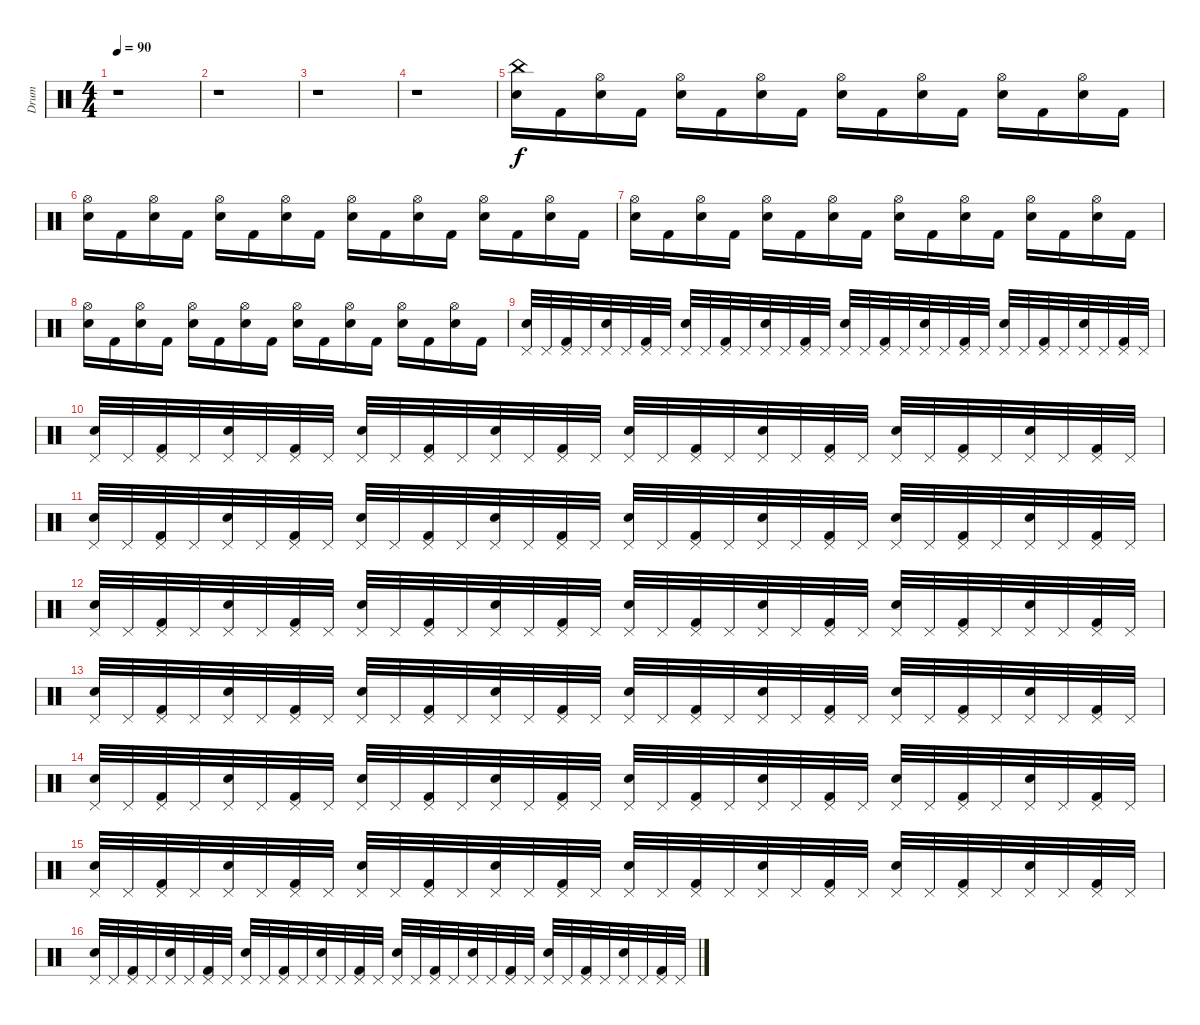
\track ("Drum" "Drum") {instrument percussion}
\staff {score}
\articulation defaults
\ts (4 4)
\tempo 90
\clef neutral
\ks c
r.1{dy f} |
r.1 |
r.1 |
r.1 |
("China (hit)" "Electric Snare (hit)").16 "Kick (hit) 2".16 ("Hi-Hat (open)" "Electric Snare (hit)").16 "Kick (hit) 2".16 ("Hi-Hat (open)" "Electric Snare (hit)").16 "Kick (hit) 2".16 ("Hi-Hat (open)" "Electric Snare (hit)").16 "Kick (hit) 2".16 ("Hi-Hat (open)" "Electric Snare (hit)").16 "Kick (hit) 2".16 ("Hi-Hat (open)" "Electric Snare (hit)").16 "Kick (hit) 2".16 ("Hi-Hat (open)" "Electric Snare (hit)").16 "Kick (hit) 2".16 ("Hi-Hat (open)" "Electric Snare (hit)").16 "Kick (hit) 2".16 |
("Hi-Hat (open)" "Electric Snare (hit)").16 "Kick (hit) 2".16 ("Hi-Hat (open)" "Electric Snare (hit)").16 "Kick (hit) 2".16 ("Hi-Hat (open)" "Electric Snare (hit)").16 "Kick (hit) 2".16 ("Hi-Hat (open)" "Electric Snare (hit)").16 "Kick (hit) 2".16 ("Hi-Hat (open)" "Electric Snare (hit)").16 "Kick (hit) 2".16 ("Hi-Hat (open)" "Electric Snare (hit)").16 "Kick (hit) 2".16 ("Hi-Hat (open)" "Electric Snare (hit)").16 "Kick (hit) 2".16 ("Hi-Hat (open)" "Electric Snare (hit)").16 "Kick (hit) 2".16 |
("Hi-Hat (open)" "Electric Snare (hit)").16 "Kick (hit) 2".16 ("Hi-Hat (open)" "Electric Snare (hit)").16 "Kick (hit) 2".16 ("Hi-Hat (open)" "Electric Snare (hit)").16 "Kick (hit) 2".16 ("Hi-Hat (open)" "Electric Snare (hit)").16 "Kick (hit) 2".16 ("Hi-Hat (open)" "Electric Snare (hit)").16 "Kick (hit) 2".16 ("Hi-Hat (open)" "Electric Snare (hit)").16 "Kick (hit) 2".16 ("Hi-Hat (open)" "Electric Snare (hit)").16 "Kick (hit) 2".16 ("Hi-Hat (open)" "Electric Snare (hit)").16 "Kick (hit) 2".16 |
("Hi-Hat (open)" "Electric Snare (hit)").16 "Kick (hit) 2".16 ("Hi-Hat (open)" "Electric Snare (hit)").16 "Kick (hit) 2".16 ("Hi-Hat (open)" "Electric Snare (hit)").16 "Kick (hit) 2".16 ("Hi-Hat (open)" "Electric Snare (hit)").16 "Kick (hit) 2".16 ("Hi-Hat (open)" "Electric Snare (hit)").16 "Kick (hit) 2".16 ("Hi-Hat (open)" "Electric Snare (hit)").16 "Kick (hit) 2".16 ("Hi-Hat (open)" "Electric Snare (hit)").16 "Kick (hit) 2".16 ("Hi-Hat (open)" "Electric Snare (hit)").16 "Kick (hit) 2".16 |
("Pedal Hi-Hat (hit)" "Electric Snare (hit)").32 "Pedal Hi-Hat (hit)".32 ("Pedal Hi-Hat (hit)" "Kick (hit) 2").32 "Pedal Hi-Hat (hit)".32 ("Pedal Hi-Hat (hit)" "Electric Snare (hit)").32 "Pedal Hi-Hat (hit)".32 ("Pedal Hi-Hat (hit)" "Kick (hit) 2").32 "Pedal Hi-Hat (hit)".32 ("Pedal Hi-Hat (hit)" "Electric Snare (hit)").32 "Pedal Hi-Hat (hit)".32 ("Pedal Hi-Hat (hit)" "Kick (hit) 2").32 "Pedal Hi-Hat (hit)".32 ("Pedal Hi-Hat (hit)" "Electric Snare (hit)").32 "Pedal Hi-Hat (hit)".32 ("Pedal Hi-Hat (hit)" "Kick (hit) 2").32 "Pedal Hi-Hat (hit)".32 ("Pedal Hi-Hat (hit)" "Electric Snare (hit)").32 "Pedal Hi-Hat (hit)".32 ("Pedal Hi-Hat (hit)" "Kick (hit) 2").32 "Pedal Hi-Hat (hit)".32 ("Pedal Hi-Hat (hit)" "Electric Snare (hit)").32 "Pedal Hi-Hat (hit)".32 ("Pedal Hi-Hat (hit)" "Kick (hit) 2").32 "Pedal Hi-Hat (hit)".32 ("Pedal Hi-Hat (hit)" "Electric Snare (hit)").32 "Pedal Hi-Hat (hit)".32 ("Pedal Hi-Hat (hit)" "Kick (hit) 2").32 "Pedal Hi-Hat (hit)".32 ("Pedal Hi-Hat (hit)" "Electric Snare (hit)").32 "Pedal Hi-Hat (hit)".32 ("Pedal Hi-Hat (hit)" "Kick (hit) 2").32 "Pedal Hi-Hat (hit)".32 |
("Pedal Hi-Hat (hit)" "Electric Snare (hit)").32 "Pedal Hi-Hat (hit)".32 ("Pedal Hi-Hat (hit)" "Kick (hit) 2").32 "Pedal Hi-Hat (hit)".32 ("Pedal Hi-Hat (hit)" "Electric Snare (hit)").32 "Pedal Hi-Hat (hit)".32 ("Pedal Hi-Hat (hit)" "Kick (hit) 2").32 "Pedal Hi-Hat (hit)".32 ("Pedal Hi-Hat (hit)" "Electric Snare (hit)").32 "Pedal Hi-Hat (hit)".32 ("Pedal Hi-Hat (hit)" "Kick (hit) 2").32 "Pedal Hi-Hat (hit)".32 ("Pedal Hi-Hat (hit)" "Electric Snare (hit)").32 "Pedal Hi-Hat (hit)".32 ("Pedal Hi-Hat (hit)" "Kick (hit) 2").32 "Pedal Hi-Hat (hit)".32 ("Pedal Hi-Hat (hit)" "Electric Snare (hit)").32 "Pedal Hi-Hat (hit)".32 ("Pedal Hi-Hat (hit)" "Kick (hit) 2").32 "Pedal Hi-Hat (hit)".32 ("Pedal Hi-Hat (hit)" "Electric Snare (hit)").32 "Pedal Hi-Hat (hit)".32 ("Pedal Hi-Hat (hit)" "Kick (hit) 2").32 "Pedal Hi-Hat (hit)".32 ("Pedal Hi-Hat (hit)" "Electric Snare (hit)").32 "Pedal Hi-Hat (hit)".32 ("Pedal Hi-Hat (hit)" "Kick (hit) 2").32 "Pedal Hi-Hat (hit)".32 ("Pedal Hi-Hat (hit)" "Electric Snare (hit)").32 "Pedal Hi-Hat (hit)".32 ("Pedal Hi-Hat (hit)" "Kick (hit) 2").32 "Pedal Hi-Hat (hit)".32 |
("Pedal Hi-Hat (hit)" "Electric Snare (hit)").32 "Pedal Hi-Hat (hit)".32 ("Pedal Hi-Hat (hit)" "Kick (hit) 2").32 "Pedal Hi-Hat (hit)".32 ("Pedal Hi-Hat (hit)" "Electric Snare (hit)").32 "Pedal Hi-Hat (hit)".32 ("Pedal Hi-Hat (hit)" "Kick (hit) 2").32 "Pedal Hi-Hat (hit)".32 ("Pedal Hi-Hat (hit)" "Electric Snare (hit)").32 "Pedal Hi-Hat (hit)".32 ("Pedal Hi-Hat (hit)" "Kick (hit) 2").32 "Pedal Hi-Hat (hit)".32 ("Pedal Hi-Hat (hit)" "Electric Snare (hit)").32 "Pedal Hi-Hat (hit)".32 ("Pedal Hi-Hat (hit)" "Kick (hit) 2").32 "Pedal Hi-Hat (hit)".32 ("Pedal Hi-Hat (hit)" "Electric Snare (hit)").32 "Pedal Hi-Hat (hit)".32 ("Pedal Hi-Hat (hit)" "Kick (hit) 2").32 "Pedal Hi-Hat (hit)".32 ("Pedal Hi-Hat (hit)" "Electric Snare (hit)").32 "Pedal Hi-Hat (hit)".32 ("Pedal Hi-Hat (hit)" "Kick (hit) 2").32 "Pedal Hi-Hat (hit)".32 ("Pedal Hi-Hat (hit)" "Electric Snare (hit)").32 "Pedal Hi-Hat (hit)".32 ("Pedal Hi-Hat (hit)" "Kick (hit) 2").32 "Pedal Hi-Hat (hit)".32 ("Pedal Hi-Hat (hit)" "Electric Snare (hit)").32 "Pedal Hi-Hat (hit)".32 ("Pedal Hi-Hat (hit)" "Kick (hit) 2").32 "Pedal Hi-Hat (hit)".32 |
("Pedal Hi-Hat (hit)" "Electric Snare (hit)").32 "Pedal Hi-Hat (hit)".32 ("Pedal Hi-Hat (hit)" "Kick (hit) 2").32 "Pedal Hi-Hat (hit)".32 ("Pedal Hi-Hat (hit)" "Electric Snare (hit)").32 "Pedal Hi-Hat (hit)".32 ("Pedal Hi-Hat (hit)" "Kick (hit) 2").32 "Pedal Hi-Hat (hit)".32 ("Pedal Hi-Hat (hit)" "Electric Snare (hit)").32 "Pedal Hi-Hat (hit)".32 ("Pedal Hi-Hat (hit)" "Kick (hit) 2").32 "Pedal Hi-Hat (hit)".32 ("Pedal Hi-Hat (hit)" "Electric Snare (hit)").32 "Pedal Hi-Hat (hit)".32 ("Pedal Hi-Hat (hit)" "Kick (hit) 2").32 "Pedal Hi-Hat (hit)".32 ("Pedal Hi-Hat (hit)" "Electric Snare (hit)").32 "Pedal Hi-Hat (hit)".32 ("Pedal Hi-Hat (hit)" "Kick (hit) 2").32 "Pedal Hi-Hat (hit)".32 ("Pedal Hi-Hat (hit)" "Electric Snare (hit)").32 "Pedal Hi-Hat (hit)".32 ("Pedal Hi-Hat (hit)" "Kick (hit) 2").32 "Pedal Hi-Hat (hit)".32 ("Pedal Hi-Hat (hit)" "Electric Snare (hit)").32 "Pedal Hi-Hat (hit)".32 ("Pedal Hi-Hat (hit)" "Kick (hit) 2").32 "Pedal Hi-Hat (hit)".32 ("Pedal Hi-Hat (hit)" "Electric Snare (hit)").32 "Pedal Hi-Hat (hit)".32 ("Pedal Hi-Hat (hit)" "Kick (hit) 2").32 "Pedal Hi-Hat (hit)".32 |
("Pedal Hi-Hat (hit)" "Electric Snare (hit)").32 "Pedal Hi-Hat (hit)".32 ("Pedal Hi-Hat (hit)" "Kick (hit) 2").32 "Pedal Hi-Hat (hit)".32 ("Pedal Hi-Hat (hit)" "Electric Snare (hit)").32 "Pedal Hi-Hat (hit)".32 ("Pedal Hi-Hat (hit)" "Kick (hit) 2").32 "Pedal Hi-Hat (hit)".32 ("Pedal Hi-Hat (hit)" "Electric Snare (hit)").32 "Pedal Hi-Hat (hit)".32 ("Pedal Hi-Hat (hit)" "Kick (hit) 2").32 "Pedal Hi-Hat (hit)".32 ("Pedal Hi-Hat (hit)" "Electric Snare (hit)").32 "Pedal Hi-Hat (hit)".32 ("Pedal Hi-Hat (hit)" "Kick (hit) 2").32 "Pedal Hi-Hat (hit)".32 ("Pedal Hi-Hat (hit)" "Electric Snare (hit)").32 "Pedal Hi-Hat (hit)".32 ("Pedal Hi-Hat (hit)" "Kick (hit) 2").32 "Pedal Hi-Hat (hit)".32 ("Pedal Hi-Hat (hit)" "Electric Snare (hit)").32 "Pedal Hi-Hat (hit)".32 ("Pedal Hi-Hat (hit)" "Kick (hit) 2").32 "Pedal Hi-Hat (hit)".32 ("Pedal Hi-Hat (hit)" "Electric Snare (hit)").32 "Pedal Hi-Hat (hit)".32 ("Pedal Hi-Hat (hit)" "Kick (hit) 2").32 "Pedal Hi-Hat (hit)".32 ("Pedal Hi-Hat (hit)" "Electric Snare (hit)").32 "Pedal Hi-Hat (hit)".32 ("Pedal Hi-Hat (hit)" "Kick (hit) 2").32 "Pedal Hi-Hat (hit)".32 |
("Pedal Hi-Hat (hit)" "Electric Snare (hit)").32 "Pedal Hi-Hat (hit)".32 ("Pedal Hi-Hat (hit)" "Kick (hit) 2").32 "Pedal Hi-Hat (hit)".32 ("Pedal Hi-Hat (hit)" "Electric Snare (hit)").32 "Pedal Hi-Hat (hit)".32 ("Pedal Hi-Hat (hit)" "Kick (hit) 2").32 "Pedal Hi-Hat (hit)".32 ("Pedal Hi-Hat (hit)" "Electric Snare (hit)").32 "Pedal Hi-Hat (hit)".32 ("Pedal Hi-Hat (hit)" "Kick (hit) 2").32 "Pedal Hi-Hat (hit)".32 ("Pedal Hi-Hat (hit)" "Electric Snare (hit)").32 "Pedal Hi-Hat (hit)".32 ("Pedal Hi-Hat (hit)" "Kick (hit) 2").32 "Pedal Hi-Hat (hit)".32 ("Pedal Hi-Hat (hit)" "Electric Snare (hit)").32 "Pedal Hi-Hat (hit)".32 ("Pedal Hi-Hat (hit)" "Kick (hit) 2").32 "Pedal Hi-Hat (hit)".32 ("Pedal Hi-Hat (hit)" "Electric Snare (hit)").32 "Pedal Hi-Hat (hit)".32 ("Pedal Hi-Hat (hit)" "Kick (hit) 2").32 "Pedal Hi-Hat (hit)".32 ("Pedal Hi-Hat (hit)" "Electric Snare (hit)").32 "Pedal Hi-Hat (hit)".32 ("Pedal Hi-Hat (hit)" "Kick (hit) 2").32 "Pedal Hi-Hat (hit)".32 ("Pedal Hi-Hat (hit)" "Electric Snare (hit)").32 "Pedal Hi-Hat (hit)".32 ("Pedal Hi-Hat (hit)" "Kick (hit) 2").32 "Pedal Hi-Hat (hit)".32 |
("Pedal Hi-Hat (hit)" "Electric Snare (hit)").32 "Pedal Hi-Hat (hit)".32 ("Pedal Hi-Hat (hit)" "Kick (hit) 2").32 "Pedal Hi-Hat (hit)".32 ("Pedal Hi-Hat (hit)" "Electric Snare (hit)").32 "Pedal Hi-Hat (hit)".32 ("Pedal Hi-Hat (hit)" "Kick (hit) 2").32 "Pedal Hi-Hat (hit)".32 ("Pedal Hi-Hat (hit)" "Electric Snare (hit)").32 "Pedal Hi-Hat (hit)".32 ("Pedal Hi-Hat (hit)" "Kick (hit) 2").32 "Pedal Hi-Hat (hit)".32 ("Pedal Hi-Hat (hit)" "Electric Snare (hit)").32 "Pedal Hi-Hat (hit)".32 ("Pedal Hi-Hat (hit)" "Kick (hit) 2").32 "Pedal Hi-Hat (hit)".32 ("Pedal Hi-Hat (hit)" "Electric Snare (hit)").32 "Pedal Hi-Hat (hit)".32 ("Pedal Hi-Hat (hit)" "Kick (hit) 2").32 "Pedal Hi-Hat (hit)".32 ("Pedal Hi-Hat (hit)" "Electric Snare (hit)").32 "Pedal Hi-Hat (hit)".32 ("Pedal Hi-Hat (hit)" "Kick (hit) 2").32 "Pedal Hi-Hat (hit)".32 ("Pedal Hi-Hat (hit)" "Electric Snare (hit)").32 "Pedal Hi-Hat (hit)".32 ("Pedal Hi-Hat (hit)" "Kick (hit) 2").32 "Pedal Hi-Hat (hit)".32 ("Pedal Hi-Hat (hit)" "Electric Snare (hit)").32 "Pedal Hi-Hat (hit)".32 ("Pedal Hi-Hat (hit)" "Kick (hit) 2").32 "Pedal Hi-Hat (hit)".32 |
("Pedal Hi-Hat (hit)" "Electric Snare (hit)").32 "Pedal Hi-Hat (hit)".32 ("Pedal Hi-Hat (hit)" "Kick (hit) 2").32 "Pedal Hi-Hat (hit)".32 ("Pedal Hi-Hat (hit)" "Electric Snare (hit)").32 "Pedal Hi-Hat (hit)".32 ("Pedal Hi-Hat (hit)" "Kick (hit) 2").32 "Pedal Hi-Hat (hit)".32 ("Pedal Hi-Hat (hit)" "Electric Snare (hit)").32 "Pedal Hi-Hat (hit)".32 ("Pedal Hi-Hat (hit)" "Kick (hit) 2").32 "Pedal Hi-Hat (hit)".32 ("Pedal Hi-Hat (hit)" "Electric Snare (hit)").32 "Pedal Hi-Hat (hit)".32 ("Pedal Hi-Hat (hit)" "Kick (hit) 2").32 "Pedal Hi-Hat (hit)".32 ("Pedal Hi-Hat (hit)" "Electric Snare (hit)").32 "Pedal Hi-Hat (hit)".32 ("Pedal Hi-Hat (hit)" "Kick (hit) 2").32 "Pedal Hi-Hat (hit)".32 ("Pedal Hi-Hat (hit)" "Electric Snare (hit)").32 "Pedal Hi-Hat (hit)".32 ("Pedal Hi-Hat (hit)" "Kick (hit) 2").32 "Pedal Hi-Hat (hit)".32 ("Pedal Hi-Hat (hit)" "Electric Snare (hit)").32 "Pedal Hi-Hat (hit)".32 ("Pedal Hi-Hat (hit)" "Kick (hit) 2").32 "Pedal Hi-Hat (hit)".32 ("Pedal Hi-Hat (hit)" "Electric Snare (hit)").32 "Pedal Hi-Hat (hit)".32 ("Pedal Hi-Hat (hit)" "Kick (hit) 2").32 "Pedal Hi-Hat (hit)".32
